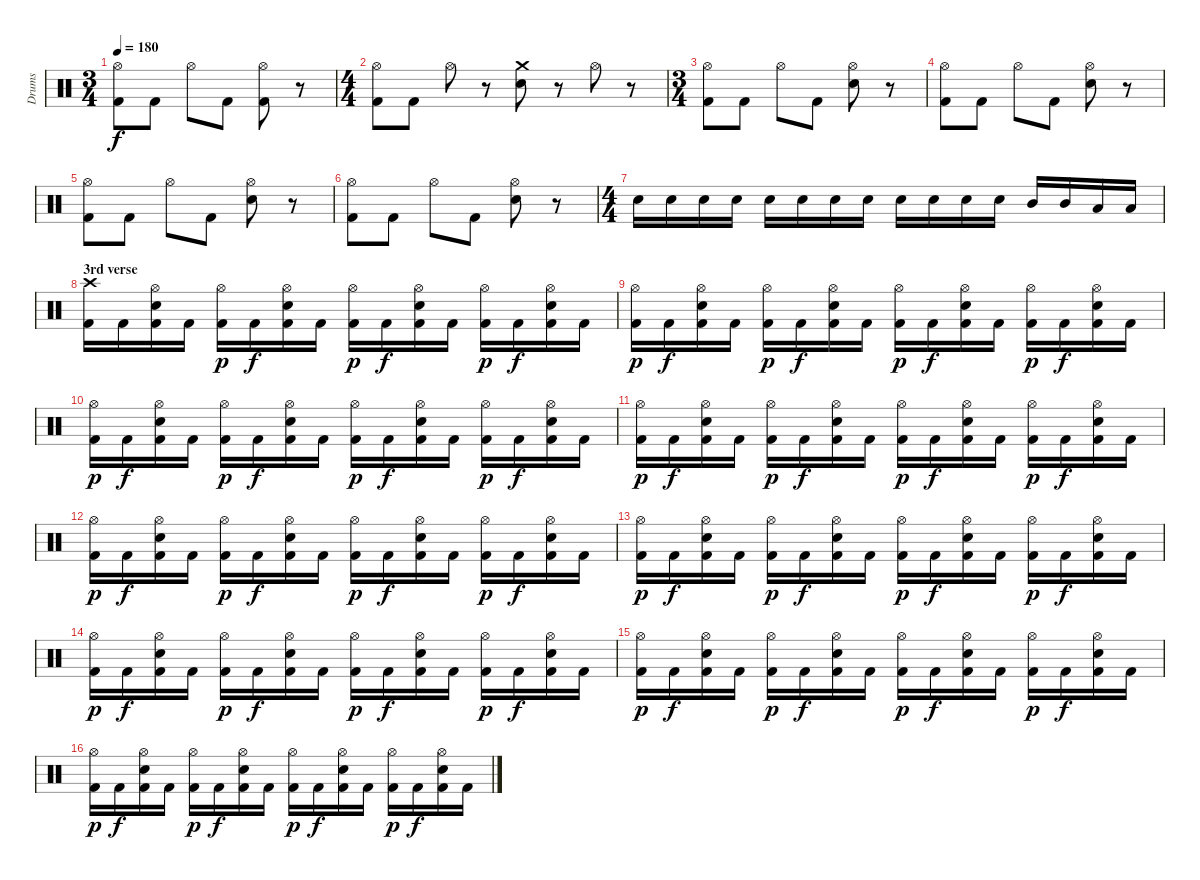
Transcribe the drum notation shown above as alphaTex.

\track ("Drums" "Drums") {instrument percussion}
\staff {score}
\articulation defaults
\ts (3 4)
\tempo 180
\clef neutral
\ks c
("Hi-Hat (open)" "Kick (hit) 2").8{dy f} "Kick (hit) 2".8 "Hi-Hat (open)".8 "Kick (hit) 2".8 ("Hi-Hat (open)" "Kick (hit) 2").8 r.8 |
\ts (4 4)
("Hi-Hat (open)" "Kick (hit) 2").8 "Kick (hit) 2".8 "Hi-Hat (open)".8 r.8 ("Crash medium (hit)" "Snare (hit) 2").8 r.8 "Hi-Hat (open)".8 r.8 |
\ts (3 4)
("Hi-Hat (open)" "Kick (hit) 2").8 "Kick (hit) 2".8 "Hi-Hat (open)".8 "Kick (hit) 2".8 ("Hi-Hat (open)" "Snare (hit) 2").8 r.8 |
("Hi-Hat (open)" "Kick (hit) 2").8 "Kick (hit) 2".8 "Hi-Hat (open)".8 "Kick (hit) 2".8 ("Hi-Hat (open)" "Snare (hit) 2").8 r.8 |
("Hi-Hat (open)" "Kick (hit) 2").8 "Kick (hit) 2".8 "Hi-Hat (open)".8 "Kick (hit) 2".8 ("Hi-Hat (open)" "Snare (hit) 2").8 r.8 |
("Hi-Hat (open)" "Kick (hit) 2").8 "Kick (hit) 2".8 "Hi-Hat (open)".8 "Kick (hit) 2".8 ("Hi-Hat (open)" "Snare (hit) 2").8 r.8 |
\ts (4 4)
"Snare (hit) 2".16 "Snare (hit) 2".16 "Snare (hit) 2".16 "Snare (hit) 2".16 "Snare (hit) 2".16 "Snare (hit) 2".16 "Snare (hit) 2".16 "Snare (hit) 2".16 "Snare (hit) 2".16 "Snare (hit) 2".16 "Snare (hit) 2".16 "Snare (hit) 2".16 "Mid Tom (hit)".16 "Mid Tom (hit)".16 "Low Tom (hit)".16 "Low Tom (hit)".16 |
\section ("" "3rd verse")
("Crash high (hit)" "Kick (hit) 2").16 "Kick (hit) 2".16 ("Hi-Hat (open)" "Snare (hit) 2" "Kick (hit) 2").16 "Kick (hit) 2".16 ("Hi-Hat (open)" "Kick (hit) 2").16{dy p} "Kick (hit) 2".16{dy f} ("Hi-Hat (open)" "Snare (hit) 2" "Kick (hit) 2").16 "Kick (hit) 2".16 ("Hi-Hat (open)" "Kick (hit) 2").16{dy p} "Kick (hit) 2".16{dy f} ("Hi-Hat (open)" "Snare (hit) 2" "Kick (hit) 2").16 "Kick (hit) 2".16 ("Hi-Hat (open)" "Kick (hit) 2").16{dy p} "Kick (hit) 2".16{dy f} ("Hi-Hat (open)" "Snare (hit) 2" "Kick (hit) 2").16 "Kick (hit) 2".16 |
("Hi-Hat (open)" "Kick (hit) 2").16{dy p} "Kick (hit) 2".16{dy f} ("Hi-Hat (open)" "Snare (hit) 2" "Kick (hit) 2").16 "Kick (hit) 2".16 ("Hi-Hat (open)" "Kick (hit) 2").16{dy p} "Kick (hit) 2".16{dy f} ("Hi-Hat (open)" "Snare (hit) 2" "Kick (hit) 2").16 "Kick (hit) 2".16 ("Hi-Hat (open)" "Kick (hit) 2").16{dy p} "Kick (hit) 2".16{dy f} ("Hi-Hat (open)" "Snare (hit) 2" "Kick (hit) 2").16 "Kick (hit) 2".16 ("Hi-Hat (open)" "Kick (hit) 2").16{dy p} "Kick (hit) 2".16{dy f} ("Hi-Hat (open)" "Snare (hit) 2" "Kick (hit) 2").16 "Kick (hit) 2".16 |
("Hi-Hat (open)" "Kick (hit) 2").16{dy p} "Kick (hit) 2".16{dy f} ("Hi-Hat (open)" "Snare (hit) 2" "Kick (hit) 2").16 "Kick (hit) 2".16 ("Hi-Hat (open)" "Kick (hit) 2").16{dy p} "Kick (hit) 2".16{dy f} ("Hi-Hat (open)" "Snare (hit) 2" "Kick (hit) 2").16 "Kick (hit) 2".16 ("Hi-Hat (open)" "Kick (hit) 2").16{dy p} "Kick (hit) 2".16{dy f} ("Hi-Hat (open)" "Snare (hit) 2" "Kick (hit) 2").16 "Kick (hit) 2".16 ("Hi-Hat (open)" "Kick (hit) 2").16{dy p} "Kick (hit) 2".16{dy f} ("Hi-Hat (open)" "Snare (hit) 2" "Kick (hit) 2").16 "Kick (hit) 2".16 |
("Hi-Hat (open)" "Kick (hit) 2").16{dy p} "Kick (hit) 2".16{dy f} ("Hi-Hat (open)" "Snare (hit) 2" "Kick (hit) 2").16 "Kick (hit) 2".16 ("Hi-Hat (open)" "Kick (hit) 2").16{dy p} "Kick (hit) 2".16{dy f} ("Hi-Hat (open)" "Snare (hit) 2" "Kick (hit) 2").16 "Kick (hit) 2".16 ("Hi-Hat (open)" "Kick (hit) 2").16{dy p} "Kick (hit) 2".16{dy f} ("Hi-Hat (open)" "Snare (hit) 2" "Kick (hit) 2").16 "Kick (hit) 2".16 ("Hi-Hat (open)" "Kick (hit) 2").16{dy p} "Kick (hit) 2".16{dy f} ("Hi-Hat (open)" "Snare (hit) 2" "Kick (hit) 2").16 "Kick (hit) 2".16 |
("Hi-Hat (open)" "Kick (hit) 2").16{dy p} "Kick (hit) 2".16{dy f} ("Hi-Hat (open)" "Snare (hit) 2" "Kick (hit) 2").16 "Kick (hit) 2".16 ("Hi-Hat (open)" "Kick (hit) 2").16{dy p} "Kick (hit) 2".16{dy f} ("Hi-Hat (open)" "Snare (hit) 2" "Kick (hit) 2").16 "Kick (hit) 2".16 ("Hi-Hat (open)" "Kick (hit) 2").16{dy p} "Kick (hit) 2".16{dy f} ("Hi-Hat (open)" "Snare (hit) 2" "Kick (hit) 2").16 "Kick (hit) 2".16 ("Hi-Hat (open)" "Kick (hit) 2").16{dy p} "Kick (hit) 2".16{dy f} ("Hi-Hat (open)" "Snare (hit) 2" "Kick (hit) 2").16 "Kick (hit) 2".16 |
("Hi-Hat (open)" "Kick (hit) 2").16{dy p} "Kick (hit) 2".16{dy f} ("Hi-Hat (open)" "Snare (hit) 2" "Kick (hit) 2").16 "Kick (hit) 2".16 ("Hi-Hat (open)" "Kick (hit) 2").16{dy p} "Kick (hit) 2".16{dy f} ("Hi-Hat (open)" "Snare (hit) 2" "Kick (hit) 2").16 "Kick (hit) 2".16 ("Hi-Hat (open)" "Kick (hit) 2").16{dy p} "Kick (hit) 2".16{dy f} ("Hi-Hat (open)" "Snare (hit) 2" "Kick (hit) 2").16 "Kick (hit) 2".16 ("Hi-Hat (open)" "Kick (hit) 2").16{dy p} "Kick (hit) 2".16{dy f} ("Hi-Hat (open)" "Snare (hit) 2" "Kick (hit) 2").16 "Kick (hit) 2".16 |
("Hi-Hat (open)" "Kick (hit) 2").16{dy p} "Kick (hit) 2".16{dy f} ("Hi-Hat (open)" "Snare (hit) 2" "Kick (hit) 2").16 "Kick (hit) 2".16 ("Hi-Hat (open)" "Kick (hit) 2").16{dy p} "Kick (hit) 2".16{dy f} ("Hi-Hat (open)" "Snare (hit) 2" "Kick (hit) 2").16 "Kick (hit) 2".16 ("Hi-Hat (open)" "Kick (hit) 2").16{dy p} "Kick (hit) 2".16{dy f} ("Hi-Hat (open)" "Snare (hit) 2" "Kick (hit) 2").16 "Kick (hit) 2".16 ("Hi-Hat (open)" "Kick (hit) 2").16{dy p} "Kick (hit) 2".16{dy f} ("Hi-Hat (open)" "Snare (hit) 2" "Kick (hit) 2").16 "Kick (hit) 2".16 |
("Hi-Hat (open)" "Kick (hit) 2").16{dy p} "Kick (hit) 2".16{dy f} ("Hi-Hat (open)" "Snare (hit) 2" "Kick (hit) 2").16 "Kick (hit) 2".16 ("Hi-Hat (open)" "Kick (hit) 2").16{dy p} "Kick (hit) 2".16{dy f} ("Hi-Hat (open)" "Snare (hit) 2" "Kick (hit) 2").16 "Kick (hit) 2".16 ("Hi-Hat (open)" "Kick (hit) 2").16{dy p} "Kick (hit) 2".16{dy f} ("Hi-Hat (open)" "Snare (hit) 2" "Kick (hit) 2").16 "Kick (hit) 2".16 ("Hi-Hat (open)" "Kick (hit) 2").16{dy p} "Kick (hit) 2".16{dy f} ("Hi-Hat (open)" "Snare (hit) 2" "Kick (hit) 2").16 "Kick (hit) 2".16 |
("Hi-Hat (open)" "Kick (hit) 2").16{dy p} "Kick (hit) 2".16{dy f} ("Hi-Hat (open)" "Snare (hit) 2" "Kick (hit) 2").16 "Kick (hit) 2".16 ("Hi-Hat (open)" "Kick (hit) 2").16{dy p} "Kick (hit) 2".16{dy f} ("Hi-Hat (open)" "Snare (hit) 2" "Kick (hit) 2").16 "Kick (hit) 2".16 ("Hi-Hat (open)" "Kick (hit) 2").16{dy p} "Kick (hit) 2".16{dy f} ("Hi-Hat (open)" "Snare (hit) 2" "Kick (hit) 2").16 "Kick (hit) 2".16 ("Hi-Hat (open)" "Kick (hit) 2").16{dy p} "Kick (hit) 2".16{dy f} ("Hi-Hat (open)" "Snare (hit) 2" "Kick (hit) 2").16 "Kick (hit) 2".16
